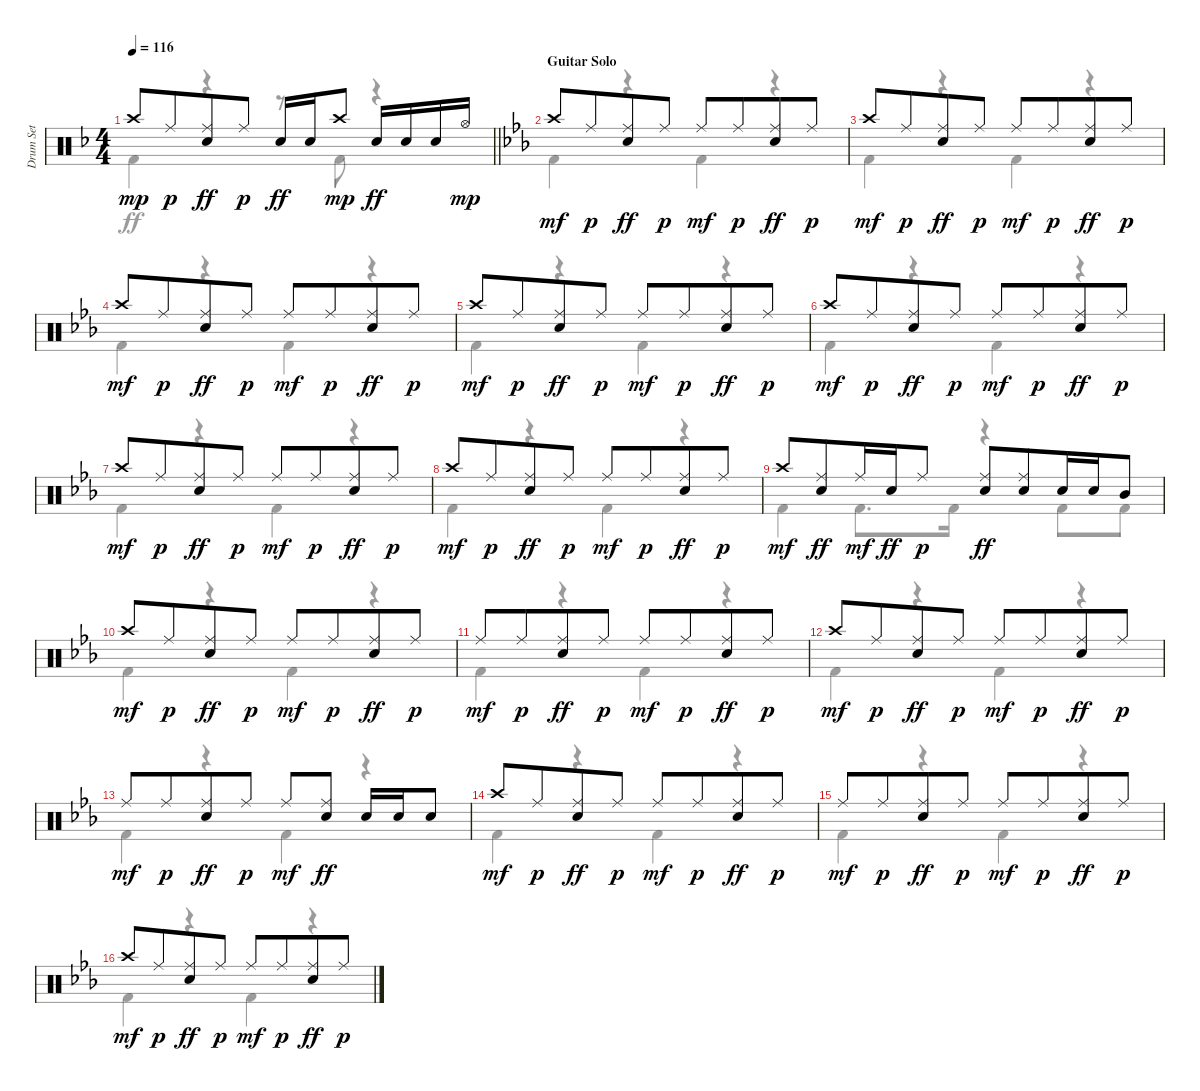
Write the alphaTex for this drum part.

\track ("Drum Set" "Drum Set") {instrument percussion}
\staff {score}
\articulation defaults
\voice
\ts (4 4)
\tempo 116
\clef neutral
\barLineRight lightlight
\ks f "Crash high (hit)".8{dy mp} "Ride (middle)".8{dy p beam merge}
("Ride (middle)" "Electric Snare (hit)").8{dy ff} "Ride (middle)".8{dy p} "Electric Snare (hit)".16{dy ff} "Electric Snare (hit)".16 "Crash high (hit)".8{dy mp} "Electric Snare (hit)".16{dy ff} "Electric Snare (hit)".16 "Electric Snare (hit)".16 "Hi-Hat (open)".16{dy mp} |
\section ("" "Guitar Solo")
\ks eb "Crash high (hit)".8{dy mf} "Ride (middle)".8{dy p beam merge}
("Ride (middle)" "Electric Snare (hit)").8{dy ff} "Ride (middle)".8{dy p} "Ride (middle)".8{dy mf} "Ride (middle)".8{dy p beam merge} ("Ride (middle)" "Electric Snare (hit)").8{dy ff} "Ride (middle)".8{dy p} |
"Crash high (hit)".8{dy mf} "Ride (middle)".8{dy p beam merge} ("Ride (middle)" "Electric Snare (hit)").8{dy ff} "Ride (middle)".8{dy p} "Ride (middle)".8{dy mf} "Ride (middle)".8{dy p beam merge} ("Ride (middle)" "Electric Snare (hit)").8{dy ff} "Ride (middle)".8{dy p} |
"Crash high (hit)".8{dy mf} "Ride (middle)".8{dy p beam merge} ("Ride (middle)" "Electric Snare (hit)").8{dy ff} "Ride (middle)".8{dy p} "Ride (middle)".8{dy mf} "Ride (middle)".8{dy p beam merge} ("Ride (middle)" "Electric Snare (hit)").8{dy ff} "Ride (middle)".8{dy p} |
"Crash high (hit)".8{dy mf} "Ride (middle)".8{dy p beam merge} ("Ride (middle)" "Electric Snare (hit)").8{dy ff} "Ride (middle)".8{dy p} "Ride (middle)".8{dy mf} "Ride (middle)".8{dy p beam merge} ("Ride (middle)" "Electric Snare (hit)").8{dy ff} "Ride (middle)".8{dy p} |
"Crash high (hit)".8{dy mf} "Ride (middle)".8{dy p beam merge} ("Ride (middle)" "Electric Snare (hit)").8{dy ff} "Ride (middle)".8{dy p} "Ride (middle)".8{dy mf} "Ride (middle)".8{dy p beam merge} ("Ride (middle)" "Electric Snare (hit)").8{dy ff} "Ride (middle)".8{dy p} |
"Crash high (hit)".8{dy mf} "Ride (middle)".8{dy p beam merge} ("Ride (middle)" "Electric Snare (hit)").8{dy ff} "Ride (middle)".8{dy p} "Ride (middle)".8{dy mf} "Ride (middle)".8{dy p beam merge} ("Ride (middle)" "Electric Snare (hit)").8{dy ff} "Ride (middle)".8{dy p} |
"Crash high (hit)".8{dy mf} "Ride (middle)".8{dy p beam merge} ("Ride (middle)" "Electric Snare (hit)").8{dy ff} "Ride (middle)".8{dy p} "Ride (middle)".8{dy mf} "Ride (middle)".8{dy p beam merge} ("Ride (middle)" "Electric Snare (hit)").8{dy ff} "Ride (middle)".8{dy p} |
"Crash high (hit)".8{dy mf} ("Ride (middle)" "Electric Snare (hit)").8{dy ff beam merge} "Ride (middle)".16{dy mf} "Electric Snare (hit)".16{dy ff} "Ride (middle)".8{dy p} ("Ride (middle)" "Electric Snare (hit)").8{dy ff} ("Ride (middle)" "Electric Snare (hit)").8{beam merge} "Electric Snare (hit)".16 "Electric Snare (hit)".16 "Mid Tom (hit)".8 |
"Crash high (hit)".8{dy mf} "Ride (middle)".8{dy p beam merge} ("Ride (middle)" "Electric Snare (hit)").8{dy ff} "Ride (middle)".8{dy p} "Ride (middle)".8{dy mf} "Ride (middle)".8{dy p beam merge} ("Ride (middle)" "Electric Snare (hit)").8{dy ff} "Ride (middle)".8{dy p} |
"Ride (middle)".8{dy mf} "Ride (middle)".8{dy p beam merge} ("Ride (middle)" "Electric Snare (hit)").8{dy ff} "Ride (middle)".8{dy p} "Ride (middle)".8{dy mf} "Ride (middle)".8{dy p beam merge} ("Ride (middle)" "Electric Snare (hit)").8{dy ff} "Ride (middle)".8{dy p} |
"Crash high (hit)".8{dy mf} "Ride (middle)".8{dy p beam merge} ("Ride (middle)" "Electric Snare (hit)").8{dy ff} "Ride (middle)".8{dy p} "Ride (middle)".8{dy mf} "Ride (middle)".8{dy p beam merge} ("Ride (middle)" "Electric Snare (hit)").8{dy ff} "Ride (middle)".8{dy p} |
"Ride (middle)".8{dy mf} "Ride (middle)".8{dy p beam merge} ("Ride (middle)" "Electric Snare (hit)").8{dy ff} "Ride (middle)".8{dy p} "Ride (middle)".8{dy mf beam merge} ("Ride (middle)" "Electric Snare (hit)").8{dy ff} "Electric Snare (hit)".16 "Electric Snare (hit)".16 "Electric Snare (hit)".8 |
"Crash high (hit)".8{dy mf} "Ride (middle)".8{dy p beam merge} ("Ride (middle)" "Electric Snare (hit)").8{dy ff} "Ride (middle)".8{dy p} "Ride (middle)".8{dy mf} "Ride (middle)".8{dy p beam merge} ("Ride (middle)" "Electric Snare (hit)").8{dy ff} "Ride (middle)".8{dy p} |
"Ride (middle)".8{dy mf} "Ride (middle)".8{dy p beam merge} ("Ride (middle)" "Electric Snare (hit)").8{dy ff} "Ride (middle)".8{dy p} "Ride (middle)".8{dy mf} "Ride (middle)".8{dy p beam merge} ("Ride (middle)" "Electric Snare (hit)").8{dy ff} "Ride (middle)".8{dy p} |
"Crash high (hit)".8{dy mf} "Ride (middle)".8{dy p beam merge} ("Ride (middle)" "Electric Snare (hit)").8{dy ff} "Ride (middle)".8{dy p} "Ride (middle)".8{dy mf} "Ride (middle)".8{dy p beam merge} ("Ride (middle)" "Electric Snare (hit)").8{dy ff} "Ride (middle)".8{dy p}
\voice
\clef neutral
\ottava regular
\simile none
\barLineRight lightlight
\ks f "Kick (hit) 2".4{dy ff}
r.4 r.8 "Kick (hit) 2".8 r.4 |
\ks eb "Kick (hit) 2".4
r.4 "Kick (hit) 2".4 r.4 |
"Kick (hit) 2".4 r.4 "Kick (hit) 2".4 r.4 |
"Kick (hit) 2".4 r.4 "Kick (hit) 2".4 r.4 |
"Kick (hit) 2".4 r.4 "Kick (hit) 2".4 r.4 |
"Kick (hit) 2".4 r.4 "Kick (hit) 2".4 r.4 |
"Kick (hit) 2".4 r.4 "Kick (hit) 2".4 r.4 |
"Kick (hit) 2".4 r.4 "Kick (hit) 2".4 r.4 |
"Kick (hit) 2".4 "Kick (hit) 2".8{d} "Kick (hit) 2".16 r.4 "Kick (hit) 2".8 "Kick (hit) 2".8 |
"Kick (hit) 2".4 r.4 "Kick (hit) 2".4 r.4 |
"Kick (hit) 2".4 r.4 "Kick (hit) 2".4 r.4 |
"Kick (hit) 2".4 r.4 "Kick (hit) 2".4 r.4 |
"Kick (hit) 2".4 r.4 "Kick (hit) 2".4 r.4 |
"Kick (hit) 2".4 r.4 "Kick (hit) 2".4 r.4 |
"Kick (hit) 2".4 r.4 "Kick (hit) 2".4 r.4 |
"Kick (hit) 2".4 r.4 "Kick (hit) 2".4 r.4
